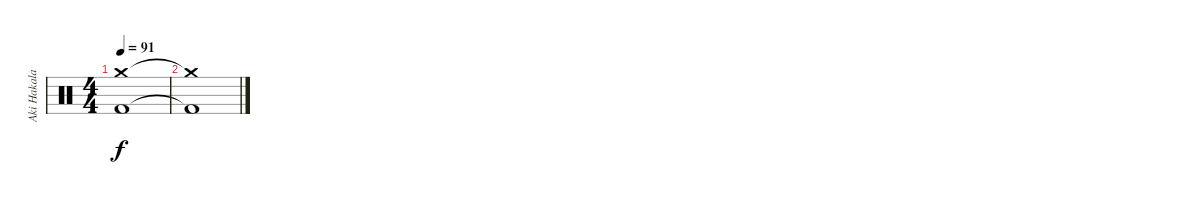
\track ("Aki Hakala" "Aki Hakala") {instrument percussion}
\staff {score}
\articulation defaults
\ts (4 4)
\tempo 91
\clef neutral
\ks c
("Crash medium (hit)" "Kick (hit) 2").1{dy f} |
("Crash medium (hit)"{t} "Kick (hit) 2"{t}).1
